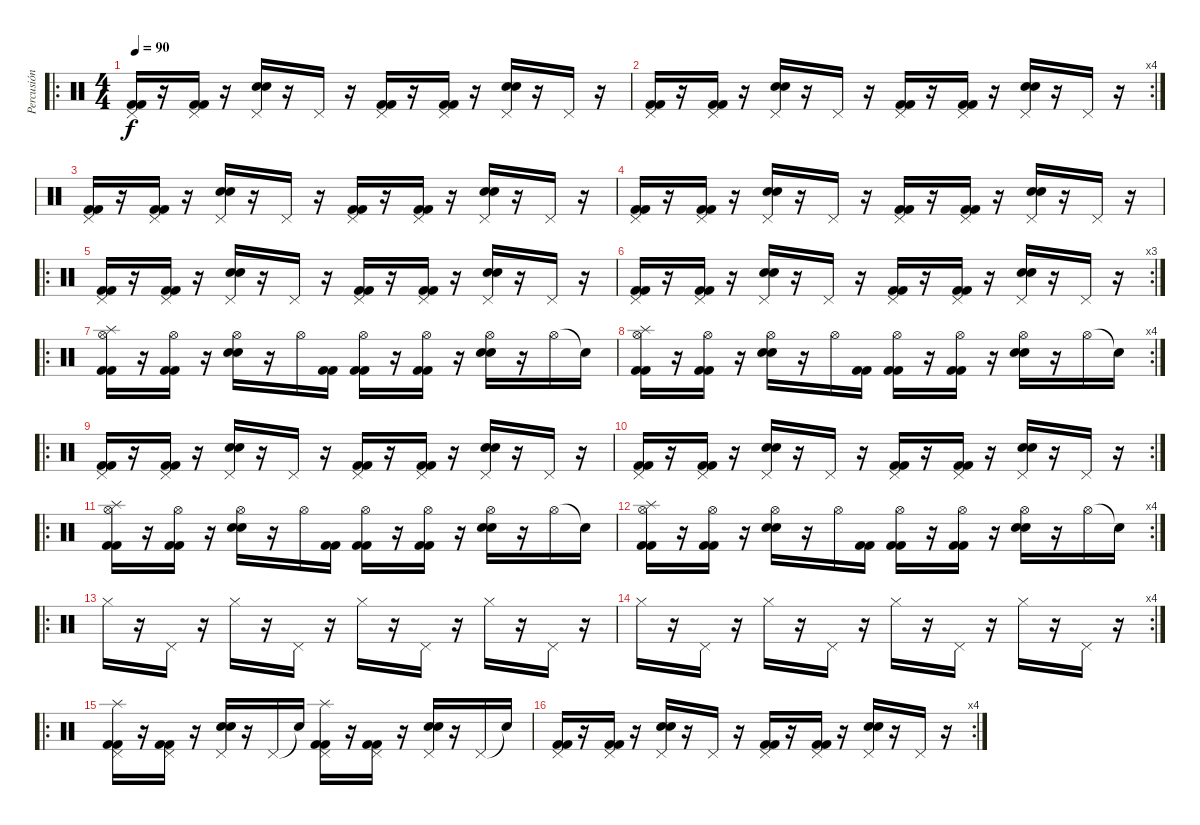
\track ("Percusión" "Percusión") {instrument percussion}
\staff {score}
\articulation defaults
\ro
\ts (4 4)
\tempo 90
\clef neutral
\ks c
("Pedal Hi-Hat (hit)" "Kick (hit) 2" "Kick (hit) 2").16{dy f} r.16 ("Pedal Hi-Hat (hit)" "Kick (hit) 2" "Kick (hit) 2").16 r.16 ("Pedal Hi-Hat (hit)" "Electric Snare (hit)" "Electric Snare (hit)").16 r.16 "Pedal Hi-Hat (hit)".16 r.16 ("Pedal Hi-Hat (hit)" "Kick (hit) 2" "Kick (hit) 2").16 r.16 ("Pedal Hi-Hat (hit)" "Kick (hit) 2" "Kick (hit) 2").16 r.16 ("Pedal Hi-Hat (hit)" "Electric Snare (hit)" "Electric Snare (hit)").16 r.16 "Pedal Hi-Hat (hit)".16 r.16 |
\rc 4
("Pedal Hi-Hat (hit)" "Kick (hit) 2" "Kick (hit) 2").16 r.16 ("Pedal Hi-Hat (hit)" "Kick (hit) 2" "Kick (hit) 2").16 r.16 ("Pedal Hi-Hat (hit)" "Electric Snare (hit)" "Electric Snare (hit)").16 r.16 "Pedal Hi-Hat (hit)".16 r.16 ("Pedal Hi-Hat (hit)" "Kick (hit) 2" "Kick (hit) 2").16 r.16 ("Pedal Hi-Hat (hit)" "Kick (hit) 2" "Kick (hit) 2").16 r.16 ("Pedal Hi-Hat (hit)" "Electric Snare (hit)" "Electric Snare (hit)").16 r.16 "Pedal Hi-Hat (hit)".16 r.16 |
("Pedal Hi-Hat (hit)" "Kick (hit) 2" "Kick (hit) 2").16 r.16 ("Pedal Hi-Hat (hit)" "Kick (hit) 2" "Kick (hit) 2").16 r.16 ("Pedal Hi-Hat (hit)" "Electric Snare (hit)" "Electric Snare (hit)").16 r.16 "Pedal Hi-Hat (hit)".16 r.16 ("Pedal Hi-Hat (hit)" "Kick (hit) 2" "Kick (hit) 2").16 r.16 ("Pedal Hi-Hat (hit)" "Kick (hit) 2" "Kick (hit) 2").16 r.16 ("Pedal Hi-Hat (hit)" "Electric Snare (hit)" "Electric Snare (hit)").16 r.16 "Pedal Hi-Hat (hit)".16 r.16 |
("Pedal Hi-Hat (hit)" "Kick (hit) 2" "Kick (hit) 2").16 r.16 ("Pedal Hi-Hat (hit)" "Kick (hit) 2" "Kick (hit) 2").16 r.16 ("Pedal Hi-Hat (hit)" "Electric Snare (hit)" "Electric Snare (hit)").16 r.16 "Pedal Hi-Hat (hit)".16 r.16 ("Pedal Hi-Hat (hit)" "Kick (hit) 2" "Kick (hit) 2").16 r.16 ("Pedal Hi-Hat (hit)" "Kick (hit) 2" "Kick (hit) 2").16 r.16 ("Pedal Hi-Hat (hit)" "Electric Snare (hit)" "Electric Snare (hit)").16 r.16 "Pedal Hi-Hat (hit)".16 r.16 |
\ro
("Pedal Hi-Hat (hit)" "Kick (hit) 2" "Kick (hit) 2").16 r.16 ("Pedal Hi-Hat (hit)" "Kick (hit) 2" "Kick (hit) 2").16 r.16 ("Pedal Hi-Hat (hit)" "Electric Snare (hit)" "Electric Snare (hit)").16 r.16 "Pedal Hi-Hat (hit)".16 r.16 ("Pedal Hi-Hat (hit)" "Kick (hit) 2" "Kick (hit) 2").16 r.16 ("Pedal Hi-Hat (hit)" "Kick (hit) 2" "Kick (hit) 2").16 r.16 ("Pedal Hi-Hat (hit)" "Electric Snare (hit)" "Electric Snare (hit)").16 r.16 "Pedal Hi-Hat (hit)".16 r.16 |
\rc 3
("Pedal Hi-Hat (hit)" "Kick (hit) 2" "Kick (hit) 2").16 r.16 ("Pedal Hi-Hat (hit)" "Kick (hit) 2" "Kick (hit) 2").16 r.16 ("Pedal Hi-Hat (hit)" "Electric Snare (hit)" "Electric Snare (hit)").16 r.16 "Pedal Hi-Hat (hit)".16 r.16 ("Pedal Hi-Hat (hit)" "Kick (hit) 2" "Kick (hit) 2").16 r.16 ("Pedal Hi-Hat (hit)" "Kick (hit) 2" "Kick (hit) 2").16 r.16 ("Pedal Hi-Hat (hit)" "Electric Snare (hit)" "Electric Snare (hit)").16 r.16 "Pedal Hi-Hat (hit)".16 r.16 |
\ro
("Hi-Hat (open)" "Splash (hit)" "Kick (hit) 2" "Kick (hit) 2").16 r.16 ("Hi-Hat (open)" "Kick (hit) 2" "Kick (hit) 2").16 r.16 ("Hi-Hat (open)" "Electric Snare (hit)" "Electric Snare (hit)").16 r.16 "Hi-Hat (open)".16 ("Kick (hit) 2" "Kick (hit) 2").16 ("Hi-Hat (open)" "Kick (hit) 2" "Kick (hit) 2").16 r.16 ("Hi-Hat (open)" "Kick (hit) 2" "Kick (hit) 2").16 r.16 ("Hi-Hat (open)" "Electric Snare (hit)" "Electric Snare (hit)").16 r.16 "Hi-Hat (open)".16 "Snare (hit)"{t}.16 |
\rc 4
("Hi-Hat (open)" "Splash (hit)" "Kick (hit) 2" "Kick (hit) 2").16 r.16 ("Hi-Hat (open)" "Kick (hit) 2" "Kick (hit) 2").16 r.16 ("Hi-Hat (open)" "Electric Snare (hit)" "Electric Snare (hit)").16 r.16 "Hi-Hat (open)".16 ("Kick (hit) 2" "Kick (hit) 2").16 ("Hi-Hat (open)" "Kick (hit) 2" "Kick (hit) 2").16 r.16 ("Hi-Hat (open)" "Kick (hit) 2" "Kick (hit) 2").16 r.16 ("Hi-Hat (open)" "Electric Snare (hit)" "Electric Snare (hit)").16 r.16 "Hi-Hat (open)".16 "Snare (hit)"{t}.16 |
\ro
("Pedal Hi-Hat (hit)" "Kick (hit) 2" "Kick (hit) 2").16 r.16 ("Pedal Hi-Hat (hit)" "Kick (hit) 2" "Kick (hit) 2").16 r.16 ("Pedal Hi-Hat (hit)" "Electric Snare (hit)" "Electric Snare (hit)").16 r.16 "Pedal Hi-Hat (hit)".16 r.16 ("Pedal Hi-Hat (hit)" "Kick (hit) 2" "Kick (hit) 2").16 r.16 ("Pedal Hi-Hat (hit)" "Kick (hit) 2" "Kick (hit) 2").16 r.16 ("Pedal Hi-Hat (hit)" "Electric Snare (hit)" "Electric Snare (hit)").16 r.16 "Pedal Hi-Hat (hit)".16 r.16 |
\rc 2
("Pedal Hi-Hat (hit)" "Kick (hit) 2" "Kick (hit) 2").16 r.16 ("Pedal Hi-Hat (hit)" "Kick (hit) 2" "Kick (hit) 2").16 r.16 ("Pedal Hi-Hat (hit)" "Electric Snare (hit)" "Electric Snare (hit)").16 r.16 "Pedal Hi-Hat (hit)".16 r.16 ("Pedal Hi-Hat (hit)" "Kick (hit) 2" "Kick (hit) 2").16 r.16 ("Pedal Hi-Hat (hit)" "Kick (hit) 2" "Kick (hit) 2").16 r.16 ("Pedal Hi-Hat (hit)" "Electric Snare (hit)" "Electric Snare (hit)").16 r.16 "Pedal Hi-Hat (hit)".16 r.16 |
\ro
("Hi-Hat (open)" "Splash (hit)" "Kick (hit) 2" "Kick (hit) 2").16 r.16 ("Hi-Hat (open)" "Kick (hit) 2" "Kick (hit) 2").16 r.16 ("Hi-Hat (open)" "Electric Snare (hit)" "Electric Snare (hit)").16 r.16 "Hi-Hat (open)".16 ("Kick (hit) 2" "Kick (hit) 2").16 ("Hi-Hat (open)" "Kick (hit) 2" "Kick (hit) 2").16 r.16 ("Hi-Hat (open)" "Kick (hit) 2" "Kick (hit) 2").16 r.16 ("Hi-Hat (open)" "Electric Snare (hit)" "Electric Snare (hit)").16 r.16 "Hi-Hat (open)".16 "Snare (hit)"{t}.16 |
\rc 4
("Hi-Hat (open)" "Splash (hit)" "Kick (hit) 2" "Kick (hit) 2").16 r.16 ("Hi-Hat (open)" "Kick (hit) 2" "Kick (hit) 2").16 r.16 ("Hi-Hat (open)" "Electric Snare (hit)" "Electric Snare (hit)").16 r.16 "Hi-Hat (open)".16 ("Kick (hit) 2" "Kick (hit) 2").16 ("Hi-Hat (open)" "Kick (hit) 2" "Kick (hit) 2").16 r.16 ("Hi-Hat (open)" "Kick (hit) 2" "Kick (hit) 2").16 r.16 ("Hi-Hat (open)" "Electric Snare (hit)" "Electric Snare (hit)").16 r.16 "Hi-Hat (open)".16 "Snare (hit)"{t}.16 |
\ro "Hi-Hat (closed)".16
r.16 "Pedal Hi-Hat (hit)".16 r.16 "Hi-Hat (closed)".16 r.16 "Pedal Hi-Hat (hit)".16 r.16 "Hi-Hat (closed)".16 r.16 "Pedal Hi-Hat (hit)".16 r.16 "Hi-Hat (closed)".16 r.16 "Pedal Hi-Hat (hit)".16 r.16 |
\rc 4 "Hi-Hat (closed)".16
r.16 "Pedal Hi-Hat (hit)".16 r.16 "Hi-Hat (closed)".16 r.16 "Pedal Hi-Hat (hit)".16 r.16 "Hi-Hat (closed)".16 r.16 "Pedal Hi-Hat (hit)".16 r.16 "Hi-Hat (closed)".16 r.16 "Pedal Hi-Hat (hit)".16 r.16 |
\ro
("Pedal Hi-Hat (hit)" "Splash (hit)" "Kick (hit) 2" "Kick (hit) 2").16 r.16 ("Pedal Hi-Hat (hit)" "Kick (hit) 2" "Kick (hit) 2").16 r.16 ("Pedal Hi-Hat (hit)" "Electric Snare (hit)" "Electric Snare (hit)").16 r.16 "Pedal Hi-Hat (hit)".16 "Snare (hit)"{t}.16 ("Pedal Hi-Hat (hit)" "Splash (hit)" "Kick (hit) 2" "Kick (hit) 2").16 r.16 ("Pedal Hi-Hat (hit)" "Kick (hit) 2" "Kick (hit) 2").16 r.16 ("Pedal Hi-Hat (hit)" "Electric Snare (hit)" "Electric Snare (hit)").16 r.16 "Pedal Hi-Hat (hit)".16 "Snare (hit)"{t}.16 |
\rc 4
("Pedal Hi-Hat (hit)" "Kick (hit) 2" "Kick (hit) 2").16 r.16 ("Pedal Hi-Hat (hit)" "Kick (hit) 2" "Kick (hit) 2").16 r.16 ("Pedal Hi-Hat (hit)" "Electric Snare (hit)" "Electric Snare (hit)").16 r.16 "Pedal Hi-Hat (hit)".16 r.16 ("Pedal Hi-Hat (hit)" "Kick (hit) 2" "Kick (hit) 2").16 r.16 ("Pedal Hi-Hat (hit)" "Kick (hit) 2" "Kick (hit) 2").16 r.16 ("Pedal Hi-Hat (hit)" "Electric Snare (hit)" "Electric Snare (hit)").16 r.16 "Pedal Hi-Hat (hit)".16 r.16
